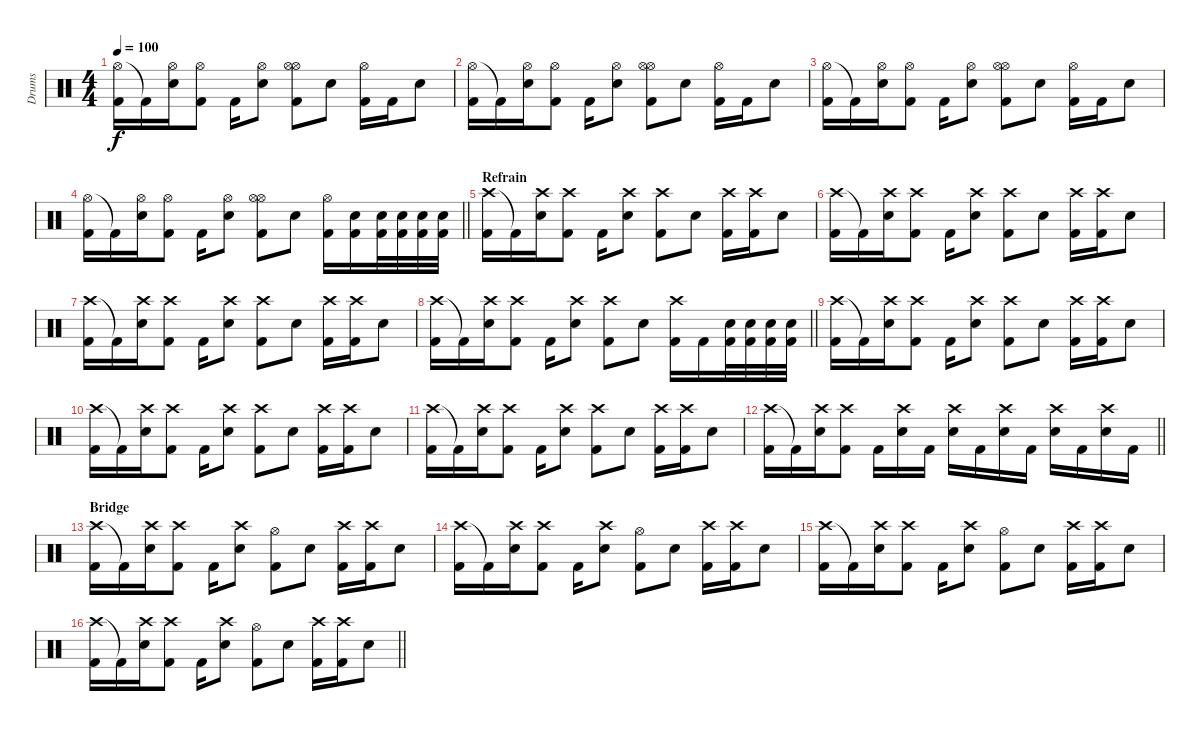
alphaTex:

\track ("Drums" "Drums") {instrument percussion}
\staff {score}
\articulation defaults
\ts (4 4)
\tempo 100
\clef neutral
\ks c
("Hi-Hat (open)" "Kick (hit) 2").16{dy f} "Kick (hit) 2"{t}.16 ("Hi-Hat (open)" "Snare (hit) 2").16 ("Hi-Hat (open)" "Kick (hit) 2").8 "Kick (hit) 2".16 ("Hi-Hat (open)" "Snare (hit) 2").8 ("Hi-Hat (open)" "Hi-Hat (open)" "Kick (hit) 2").8 "Snare (hit) 2".8 ("Hi-Hat (open)" "Kick (hit) 2").16 "Kick (hit) 2".16 "Snare (hit) 2".8 |
("Hi-Hat (open)" "Kick (hit) 2").16 "Kick (hit) 2"{t}.16 ("Hi-Hat (open)" "Snare (hit) 2").16 ("Hi-Hat (open)" "Kick (hit) 2").8 "Kick (hit) 2".16 ("Hi-Hat (open)" "Snare (hit) 2").8 ("Hi-Hat (open)" "Hi-Hat (open)" "Kick (hit) 2").8 "Snare (hit) 2".8 ("Hi-Hat (open)" "Kick (hit) 2").16 "Kick (hit) 2".16 "Snare (hit) 2".8 |
("Hi-Hat (open)" "Kick (hit) 2").16 "Kick (hit) 2"{t}.16 ("Hi-Hat (open)" "Snare (hit) 2").16 ("Hi-Hat (open)" "Kick (hit) 2").8 "Kick (hit) 2".16 ("Hi-Hat (open)" "Snare (hit) 2").8 ("Hi-Hat (open)" "Hi-Hat (open)" "Kick (hit) 2").8 "Snare (hit) 2".8 ("Hi-Hat (open)" "Kick (hit) 2").16 "Kick (hit) 2".16 "Snare (hit) 2".8 |
\barLineRight lightlight
("Hi-Hat (open)" "Kick (hit) 2").16 "Kick (hit) 2"{t}.16 ("Hi-Hat (open)" "Snare (hit) 2").16 ("Hi-Hat (open)" "Kick (hit) 2").8 "Kick (hit) 2".16 ("Hi-Hat (open)" "Snare (hit) 2").8 ("Hi-Hat (open)" "Hi-Hat (open)" "Kick (hit) 2").8 "Snare (hit) 2".8 ("Hi-Hat (open)" "Kick (hit) 2").16 ("Snare (hit) 2" "Kick (hit) 2").16 ("Snare (hit) 2" "Kick (hit) 2").32 ("Snare (hit) 2" "Kick (hit) 2").32 ("Snare (hit) 2" "Kick (hit) 2").32 ("Snare (hit) 2" "Kick (hit) 2").32 |
\section ("" "Refrain")
("Crash high (hit)" "Kick (hit) 2").16 "Kick (hit) 2"{t}.16 ("Crash high (hit)" "Snare (hit) 2").16 ("Crash high (hit)" "Kick (hit) 2").8 "Kick (hit) 2".16 ("Crash high (hit)" "Snare (hit) 2").8 ("Crash high (hit)" "Kick (hit) 2").8 "Snare (hit) 2".8 ("Crash high (hit)" "Kick (hit) 2").16 ("Crash high (hit)" "Kick (hit) 2").16 "Snare (hit) 2".8 |
("Crash high (hit)" "Kick (hit) 2").16 "Kick (hit) 2"{t}.16 ("Crash high (hit)" "Snare (hit) 2").16 ("Crash high (hit)" "Kick (hit) 2").8 "Kick (hit) 2".16 ("Crash high (hit)" "Snare (hit) 2").8 ("Crash high (hit)" "Kick (hit) 2").8 "Snare (hit) 2".8 ("Crash high (hit)" "Kick (hit) 2").16 ("Crash high (hit)" "Kick (hit) 2").16 "Snare (hit) 2".8 |
("Crash high (hit)" "Kick (hit) 2").16 "Kick (hit) 2"{t}.16 ("Crash high (hit)" "Snare (hit) 2").16 ("Crash high (hit)" "Kick (hit) 2").8 "Kick (hit) 2".16 ("Crash high (hit)" "Snare (hit) 2").8 ("Crash high (hit)" "Kick (hit) 2").8 "Snare (hit) 2".8 ("Crash high (hit)" "Kick (hit) 2").16 ("Crash high (hit)" "Kick (hit) 2").16 "Snare (hit) 2".8 |
\barLineRight lightlight
("Crash high (hit)" "Kick (hit) 2").16 "Kick (hit) 2"{t}.16 ("Crash high (hit)" "Snare (hit) 2").16 ("Crash high (hit)" "Kick (hit) 2").8 "Kick (hit) 2".16 ("Crash high (hit)" "Snare (hit) 2").8 ("Crash high (hit)" "Kick (hit) 2").8 "Snare (hit) 2".8 ("Crash high (hit)" "Kick (hit) 2").16 "Kick (hit) 2".16 ("Snare (hit) 2" "Kick (hit) 2").32 ("Snare (hit) 2" "Kick (hit) 2").32 ("Snare (hit) 2" "Kick (hit) 2").32 ("Snare (hit) 2" "Kick (hit) 2").32 |
("Crash high (hit)" "Kick (hit) 2").16 "Kick (hit) 2"{t}.16 ("Crash high (hit)" "Snare (hit) 2").16 ("Crash high (hit)" "Kick (hit) 2").8 "Kick (hit) 2".16 ("Crash high (hit)" "Snare (hit) 2").8 ("Crash high (hit)" "Kick (hit) 2").8 "Snare (hit) 2".8 ("Crash high (hit)" "Kick (hit) 2").16 ("Crash high (hit)" "Kick (hit) 2").16 "Snare (hit) 2".8 |
("Crash high (hit)" "Kick (hit) 2").16 "Kick (hit) 2"{t}.16 ("Crash high (hit)" "Snare (hit) 2").16 ("Crash high (hit)" "Kick (hit) 2").8 "Kick (hit) 2".16 ("Crash high (hit)" "Snare (hit) 2").8 ("Crash high (hit)" "Kick (hit) 2").8 "Snare (hit) 2".8 ("Crash high (hit)" "Kick (hit) 2").16 ("Crash high (hit)" "Kick (hit) 2").16 "Snare (hit) 2".8 |
("Crash high (hit)" "Kick (hit) 2").16 "Kick (hit) 2"{t}.16 ("Crash high (hit)" "Snare (hit) 2").16 ("Crash high (hit)" "Kick (hit) 2").8 "Kick (hit) 2".16 ("Crash high (hit)" "Snare (hit) 2").8 ("Crash high (hit)" "Kick (hit) 2").8 "Snare (hit) 2".8 ("Crash high (hit)" "Kick (hit) 2").16 ("Crash high (hit)" "Kick (hit) 2").16 "Snare (hit) 2".8 |
\barLineRight lightlight
("Crash high (hit)" "Kick (hit) 2").16 "Kick (hit) 2"{t}.16 ("Crash high (hit)" "Snare (hit) 2").16 ("Crash high (hit)" "Kick (hit) 2").8 "Kick (hit) 2".16 ("Crash high (hit)" "Snare (hit) 2").16 "Kick (hit) 2".16 ("Crash high (hit)" "Snare (hit) 2").16 "Kick (hit) 2".16 ("Crash high (hit)" "Snare (hit) 2").16 "Kick (hit) 2".16 ("Crash high (hit)" "Snare (hit) 2").16 "Kick (hit) 2".16 ("Crash high (hit)" "Snare (hit) 2").16 "Kick (hit) 2".16 |
\section ("" "Bridge")
("Crash high (hit)" "Kick (hit) 2").16 "Kick (hit) 2"{t}.16 ("Crash high (hit)" "Snare (hit) 2").16 ("Crash high (hit)" "Kick (hit) 2").8 "Kick (hit) 2".16 ("Crash high (hit)" "Snare (hit) 2").8 ("Hi-Hat (open)" "Kick (hit) 2").8 "Snare (hit) 2".8 ("Crash high (hit)" "Kick (hit) 2").16 ("Crash high (hit)" "Kick (hit) 2").16 "Snare (hit) 2".8 |
("Crash high (hit)" "Kick (hit) 2").16 "Kick (hit) 2"{t}.16 ("Crash high (hit)" "Snare (hit) 2").16 ("Crash high (hit)" "Kick (hit) 2").8 "Kick (hit) 2".16 ("Crash high (hit)" "Snare (hit) 2").8 ("Hi-Hat (open)" "Kick (hit) 2").8 "Snare (hit) 2".8 ("Crash high (hit)" "Kick (hit) 2").16 ("Crash high (hit)" "Kick (hit) 2").16 "Snare (hit) 2".8 |
("Crash high (hit)" "Kick (hit) 2").16 "Kick (hit) 2"{t}.16 ("Crash high (hit)" "Snare (hit) 2").16 ("Crash high (hit)" "Kick (hit) 2").8 "Kick (hit) 2".16 ("Crash high (hit)" "Snare (hit) 2").8 ("Hi-Hat (open)" "Kick (hit) 2").8 "Snare (hit) 2".8 ("Crash high (hit)" "Kick (hit) 2").16 ("Crash high (hit)" "Kick (hit) 2").16 "Snare (hit) 2".8 |
\barLineRight lightlight
("Crash high (hit)" "Kick (hit) 2").16 "Kick (hit) 2"{t}.16 ("Crash high (hit)" "Snare (hit) 2").16 ("Crash high (hit)" "Kick (hit) 2").8 "Kick (hit) 2".16 ("Crash high (hit)" "Snare (hit) 2").8 ("Hi-Hat (open)" "Kick (hit) 2").8 "Snare (hit) 2".8 ("Crash high (hit)" "Kick (hit) 2").16 ("Crash high (hit)" "Kick (hit) 2").16 "Snare (hit) 2".8
